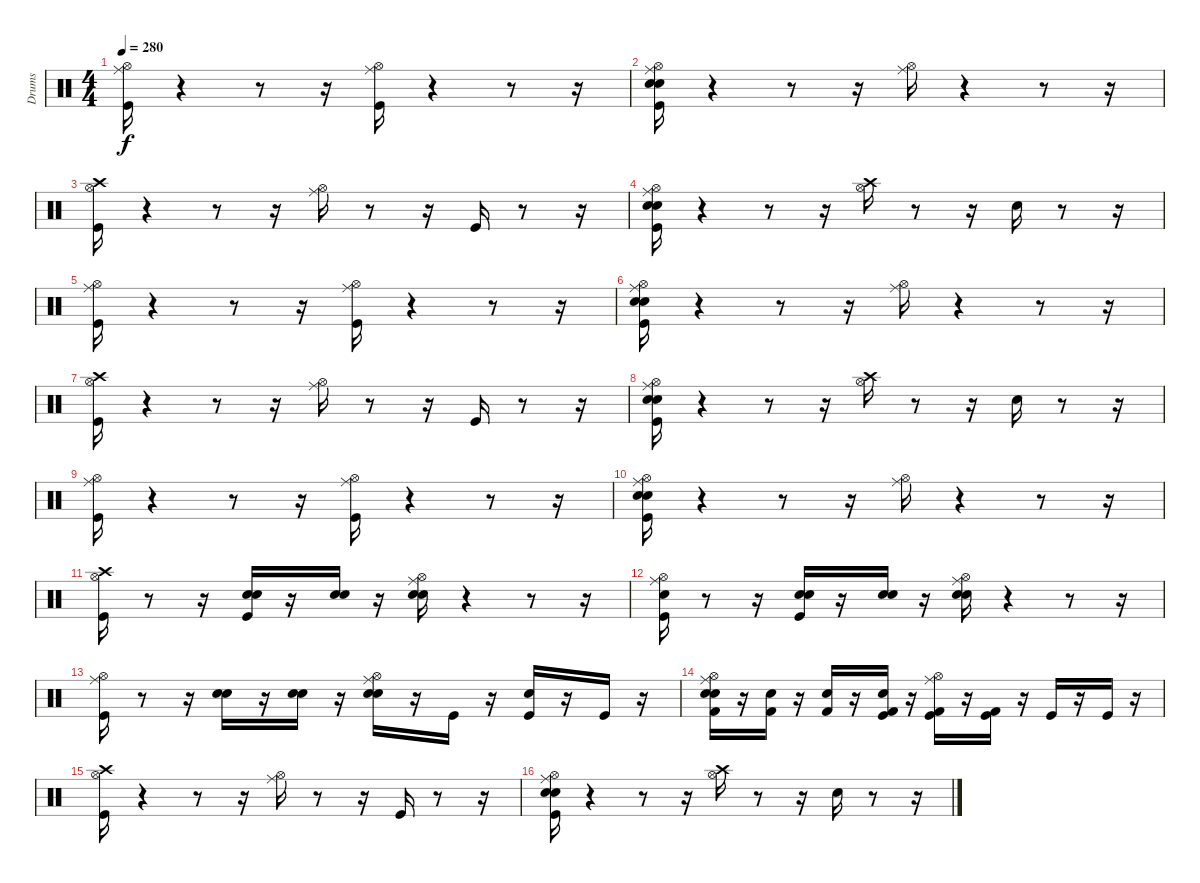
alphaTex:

\track ("Drums" "Drums") {instrument percussion}
\staff {score}
\articulation defaults
\ts (4 4)
\tempo 280
\clef neutral
\ks c
("Ride (middle)" "Hi-Hat (open)" "Kick (hit)").16{dy f} r.4 r.8 r.16 ("Hi-Hat (open)" "Ride (middle)" "Kick (hit)").16 r.4 r.8 r.16 |
("Ride (middle)" "Hi-Hat (open)" "Kick (hit)" "Snare (hit) 2" "Electric Snare (hit)").16 r.4 r.8 r.16 ("Hi-Hat (open)" "Ride (middle)").16 r.4 r.8 r.16 |
("Kick (hit)" "Hi-Hat (open)" "Crash high (hit)").16 r.4 r.8 r.16 ("Hi-Hat (open)" "Ride (middle)").16 r.8 r.16 "Kick (hit)".16 r.8 r.16 |
("Hi-Hat (open)" "Kick (hit)" "Snare (hit) 2" "Electric Snare (hit)" "Ride (middle)").16 r.4 r.8 r.16 ("Hi-Hat (open)" "Crash high (hit)").16 r.8 r.16 "Snare (hit) 2".16 r.8 r.16 |
("Ride (middle)" "Hi-Hat (open)" "Kick (hit)").16 r.4 r.8 r.16 ("Hi-Hat (open)" "Ride (middle)" "Kick (hit)").16 r.4 r.8 r.16 |
("Ride (middle)" "Hi-Hat (open)" "Kick (hit)" "Snare (hit) 2" "Electric Snare (hit)").16 r.4 r.8 r.16 ("Hi-Hat (open)" "Ride (middle)").16 r.4 r.8 r.16 |
("Kick (hit)" "Hi-Hat (open)" "Crash high (hit)").16 r.4 r.8 r.16 ("Hi-Hat (open)" "Ride (middle)").16 r.8 r.16 "Kick (hit)".16 r.8 r.16 |
("Hi-Hat (open)" "Kick (hit)" "Snare (hit) 2" "Electric Snare (hit)" "Ride (middle)").16 r.4 r.8 r.16 ("Hi-Hat (open)" "Crash high (hit)").16 r.8 r.16 "Snare (hit) 2".16 r.8 r.16 |
("Ride (middle)" "Hi-Hat (open)" "Kick (hit)").16 r.4 r.8 r.16 ("Hi-Hat (open)" "Ride (middle)" "Kick (hit)").16 r.4 r.8 r.16 |
("Ride (middle)" "Hi-Hat (open)" "Kick (hit)" "Snare (hit) 2" "Electric Snare (hit)").16 r.4 r.8 r.16 ("Hi-Hat (open)" "Ride (middle)").16 r.4 r.8 r.16 |
("Kick (hit)" "Hi-Hat (open)" "Crash high (hit)").16 r.8 r.16 ("Snare (hit) 2" "Electric Snare (hit)" "Kick (hit)").16 r.16 ("Snare (hit) 2" "Electric Snare (hit)").16 r.16 ("Hi-Hat (open)" "Ride (middle)" "Snare (hit) 2" "Electric Snare (hit)").16 r.4 r.8 r.16 |
("Hi-Hat (open)" "Ride (middle)" "Kick (hit)" "Snare (hit) 2").16 r.8 r.16 ("Electric Snare (hit)" "Snare (hit) 2" "Kick (hit)").16 r.16 ("Snare (hit) 2" "Electric Snare (hit)").16 r.16 ("Snare (hit) 2" "Electric Snare (hit)" "Hi-Hat (open)" "Ride (middle)").16 r.4 r.8 r.16 |
("Ride (middle)" "Hi-Hat (open)" "Kick (hit)").16 r.8 r.16 ("Snare (hit) 2" "Electric Snare (hit)").16 r.16 ("Electric Snare (hit)" "Snare (hit) 2").16 r.16 ("Hi-Hat (open)" "Ride (middle)" "Electric Snare (hit)" "Snare (hit) 2").16 r.16 "Kick (hit)".16 r.16 ("Kick (hit)" "Snare (hit) 2").16 r.16 "Kick (hit)".16 r.16 |
("Ride (middle)" "Hi-Hat (open)" "Snare (hit) 2" "Electric Snare (hit)" "Kick (hit) 2").16 r.16 ("Snare (hit) 2" "Kick (hit) 2").16 r.16 ("Snare (hit) 2" "Kick (hit) 2").16 r.16 ("Snare (hit) 2" "Kick (hit) 2" "Kick (hit)").16 r.16 ("Hi-Hat (open)" "Ride (middle)" "Kick (hit) 2" "Kick (hit)").16 r.16 ("Kick (hit) 2" "Kick (hit)").16 r.16 "Kick (hit)".16 r.16 "Kick (hit)".16 r.16 |
("Crash high (hit)" "Hi-Hat (open)" "Kick (hit)").16 r.4 r.8 r.16 ("Hi-Hat (open)" "Ride (middle)").16 r.8 r.16 "Kick (hit)".16 r.8 r.16 |
("Hi-Hat (open)" "Kick (hit)" "Snare (hit) 2" "Electric Snare (hit)" "Ride (middle)").16 r.4 r.8 r.16 ("Hi-Hat (open)" "Crash high (hit)").16 r.8 r.16 "Snare (hit) 2".16 r.8 r.16
